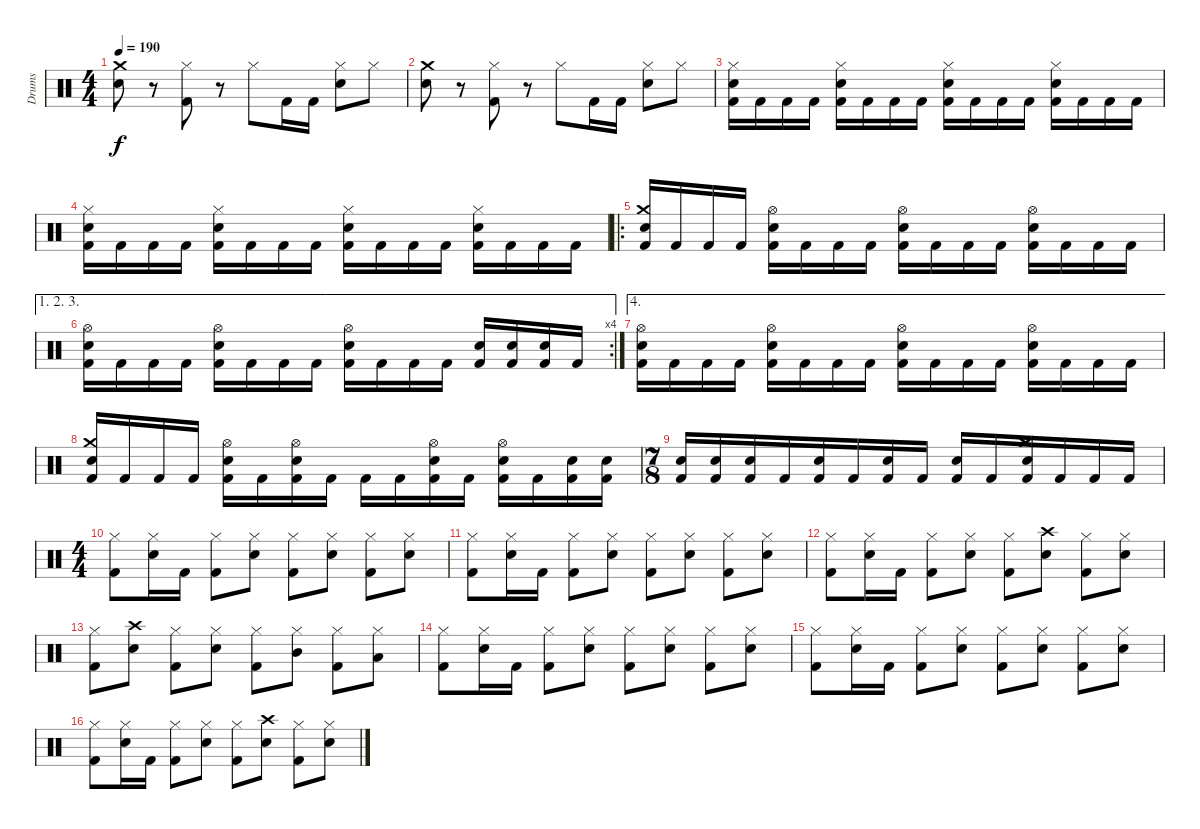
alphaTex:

\track ("Drums" "Drums") {instrument percussion}
\staff {score}
\articulation defaults
\ts (4 4)
\tempo 190
\clef neutral
\ks c
("Snare (hit) 2" "Crash medium (hit)").8{dy f} r.8 ("Kick (hit) 2" "Hi-Hat (closed)").8 r.8 "Hi-Hat (closed)".8 "Kick (hit) 2".16 "Kick (hit) 2".16 ("Snare (hit) 2" "Hi-Hat (closed)").8 "Hi-Hat (closed)".8 |
("Snare (hit) 2" "Crash medium (hit)").8 r.8 ("Kick (hit) 2" "Hi-Hat (closed)").8 r.8 "Hi-Hat (closed)".8 "Kick (hit) 2".16 "Kick (hit) 2".16 ("Snare (hit) 2" "Hi-Hat (closed)").8 "Hi-Hat (closed)".8 |
("Kick (hit) 2" "Snare (hit) 2" "Hi-Hat (closed)").16 "Kick (hit) 2".16 "Kick (hit) 2".16 "Kick (hit) 2".16 ("Kick (hit) 2" "Snare (hit) 2" "Hi-Hat (closed)").16 "Kick (hit) 2".16 "Kick (hit) 2".16 "Kick (hit) 2".16 ("Kick (hit) 2" "Snare (hit) 2" "Hi-Hat (closed)").16 "Kick (hit) 2".16 "Kick (hit) 2".16 "Kick (hit) 2".16 ("Kick (hit) 2" "Snare (hit) 2" "Hi-Hat (closed)").16 "Kick (hit) 2".16 "Kick (hit) 2".16 "Kick (hit) 2".16 |
("Kick (hit) 2" "Snare (hit) 2" "Hi-Hat (closed)").16 "Kick (hit) 2".16 "Kick (hit) 2".16 "Kick (hit) 2".16 ("Kick (hit) 2" "Snare (hit) 2" "Hi-Hat (closed)").16 "Kick (hit) 2".16 "Kick (hit) 2".16 "Kick (hit) 2".16 ("Kick (hit) 2" "Snare (hit) 2" "Hi-Hat (closed)").16 "Kick (hit) 2".16 "Kick (hit) 2".16 "Kick (hit) 2".16 ("Kick (hit) 2" "Snare (hit) 2" "Hi-Hat (closed)").16 "Kick (hit) 2".16 "Kick (hit) 2".16 "Kick (hit) 2".16 |
\ro
("Kick (hit) 2" "Snare (hit) 2" "Crash medium (hit)").16 "Kick (hit) 2".16 "Kick (hit) 2".16 "Kick (hit) 2".16 ("Kick (hit) 2" "Snare (hit) 2" "Hi-Hat (open)").16 "Kick (hit) 2".16 "Kick (hit) 2".16 "Kick (hit) 2".16 ("Kick (hit) 2" "Snare (hit) 2" "Hi-Hat (open)").16 "Kick (hit) 2".16 "Kick (hit) 2".16 "Kick (hit) 2".16 ("Kick (hit) 2" "Snare (hit) 2" "Hi-Hat (open)").16 "Kick (hit) 2".16 "Kick (hit) 2".16 "Kick (hit) 2".16 |
\ae (1 2 3)
\rc 4
("Kick (hit) 2" "Snare (hit) 2" "Hi-Hat (open)").16 "Kick (hit) 2".16 "Kick (hit) 2".16 "Kick (hit) 2".16 ("Kick (hit) 2" "Snare (hit) 2" "Hi-Hat (open)").16 "Kick (hit) 2".16 "Kick (hit) 2".16 "Kick (hit) 2".16 ("Kick (hit) 2" "Snare (hit) 2" "Hi-Hat (open)").16 "Kick (hit) 2".16 "Kick (hit) 2".16 "Kick (hit) 2".16 ("Kick (hit) 2" "Snare (hit) 2").16 ("Kick (hit) 2" "Snare (hit) 2").16 ("Kick (hit) 2" "Snare (hit) 2").16 "Kick (hit) 2".16 |
\ae 4
("Kick (hit) 2" "Snare (hit) 2" "Hi-Hat (open)").16 "Kick (hit) 2".16 "Kick (hit) 2".16 "Kick (hit) 2".16 ("Kick (hit) 2" "Snare (hit) 2" "Hi-Hat (open)").16 "Kick (hit) 2".16 "Kick (hit) 2".16 "Kick (hit) 2".16 ("Kick (hit) 2" "Snare (hit) 2" "Hi-Hat (open)").16 "Kick (hit) 2".16 "Kick (hit) 2".16 "Kick (hit) 2".16 ("Kick (hit) 2" "Snare (hit) 2" "Hi-Hat (open)").16 "Kick (hit) 2".16 "Kick (hit) 2".16 "Kick (hit) 2".16 |
("Kick (hit) 2" "Snare (hit) 2" "Crash medium (hit)").16 "Kick (hit) 2".16 "Kick (hit) 2".16 "Kick (hit) 2".16 ("Kick (hit) 2" "Snare (hit) 2" "Hi-Hat (open)").16 "Kick (hit) 2".16 ("Kick (hit) 2" "Snare (hit) 2" "Hi-Hat (open)").16 "Kick (hit) 2".16 "Kick (hit) 2".16 "Kick (hit) 2".16 ("Kick (hit) 2" "Snare (hit) 2" "Hi-Hat (open)").16 "Kick (hit) 2".16 ("Kick (hit) 2" "Snare (hit) 2" "Hi-Hat (open)").16 "Kick (hit) 2".16 ("Kick (hit) 2" "Snare (hit) 2").16 ("Kick (hit) 2" "Snare (hit) 2").16 |
\ts (7 8)
("Kick (hit) 2" "Snare (hit) 2").16 ("Kick (hit) 2" "Snare (hit) 2").16 ("Kick (hit) 2" "Snare (hit) 2").16 "Kick (hit) 2".16 ("Kick (hit) 2" "Snare (hit) 2").16 "Kick (hit) 2".16 ("Kick (hit) 2" "Snare (hit) 2").16 "Kick (hit) 2".16 ("Kick (hit) 2" "Snare (hit) 2").16 "Kick (hit) 2".16 ("Kick (hit) 2" "Snare (hit) 2" "Crash medium (hit)").16 "Kick (hit) 2".16 "Kick (hit) 2".16 "Kick (hit) 2".16 |
\ts (4 4)
("Kick (hit) 2" "Hi-Hat (closed)").8 ("Snare (hit) 2" "Hi-Hat (closed)").16 "Kick (hit) 2".16 ("Kick (hit) 2" "Hi-Hat (closed)").8 ("Snare (hit) 2" "Hi-Hat (closed)").8 ("Kick (hit) 2" "Hi-Hat (closed)").8 ("Snare (hit) 2" "Hi-Hat (closed)").8 ("Kick (hit) 2" "Hi-Hat (closed)").8 ("Snare (hit) 2" "Hi-Hat (closed)").8 |
("Kick (hit) 2" "Hi-Hat (closed)").8 ("Snare (hit) 2" "Hi-Hat (closed)").16 "Kick (hit) 2".16 ("Kick (hit) 2" "Hi-Hat (closed)").8 ("Snare (hit) 2" "Hi-Hat (closed)").8 ("Kick (hit) 2" "Hi-Hat (closed)").8 ("Snare (hit) 2" "Hi-Hat (closed)").8 ("Kick (hit) 2" "Hi-Hat (closed)").8 ("Snare (hit) 2" "Hi-Hat (closed)").8 |
("Kick (hit) 2" "Hi-Hat (closed)").8 ("Snare (hit) 2" "Hi-Hat (closed)").16 "Kick (hit) 2".16 ("Kick (hit) 2" "Hi-Hat (closed)").8 ("Snare (hit) 2" "Hi-Hat (closed)").8 ("Kick (hit) 2" "Hi-Hat (closed)").8 ("Snare (hit) 2" "Crash high (hit)").8 ("Kick (hit) 2" "Hi-Hat (closed)").8 ("Snare (hit) 2" "Hi-Hat (closed)").8 |
("Kick (hit) 2" "Hi-Hat (closed)").8 ("Snare (hit) 2" "Crash high (hit)").8 ("Kick (hit) 2" "Hi-Hat (closed)").8 ("Snare (hit) 2" "Hi-Hat (closed)").8 ("Kick (hit) 2" "Hi-Hat (closed)").8 ("Hi-Hat (closed)" "Mid Tom (hit)").8 ("Kick (hit) 2" "Hi-Hat (closed)").8 ("Hi-Hat (closed)" "Low Tom (hit)").8 |
("Kick (hit) 2" "Hi-Hat (closed)").8 ("Snare (hit) 2" "Hi-Hat (closed)").16 "Kick (hit) 2".16 ("Kick (hit) 2" "Hi-Hat (closed)").8 ("Snare (hit) 2" "Hi-Hat (closed)").8 ("Kick (hit) 2" "Hi-Hat (closed)").8 ("Snare (hit) 2" "Hi-Hat (closed)").8 ("Kick (hit) 2" "Hi-Hat (closed)").8 ("Snare (hit) 2" "Hi-Hat (closed)").8 |
("Kick (hit) 2" "Hi-Hat (closed)").8 ("Snare (hit) 2" "Hi-Hat (closed)").16 "Kick (hit) 2".16 ("Kick (hit) 2" "Hi-Hat (closed)").8 ("Snare (hit) 2" "Hi-Hat (closed)").8 ("Kick (hit) 2" "Hi-Hat (closed)").8 ("Snare (hit) 2" "Hi-Hat (closed)").8 ("Kick (hit) 2" "Hi-Hat (closed)").8 ("Snare (hit) 2" "Hi-Hat (closed)").8 |
("Kick (hit) 2" "Hi-Hat (closed)").8 ("Snare (hit) 2" "Hi-Hat (closed)").16 "Kick (hit) 2".16 ("Kick (hit) 2" "Hi-Hat (closed)").8 ("Snare (hit) 2" "Hi-Hat (closed)").8 ("Kick (hit) 2" "Hi-Hat (closed)").8 ("Snare (hit) 2" "Crash high (hit)").8 ("Kick (hit) 2" "Hi-Hat (closed)").8 ("Snare (hit) 2" "Hi-Hat (closed)").8
